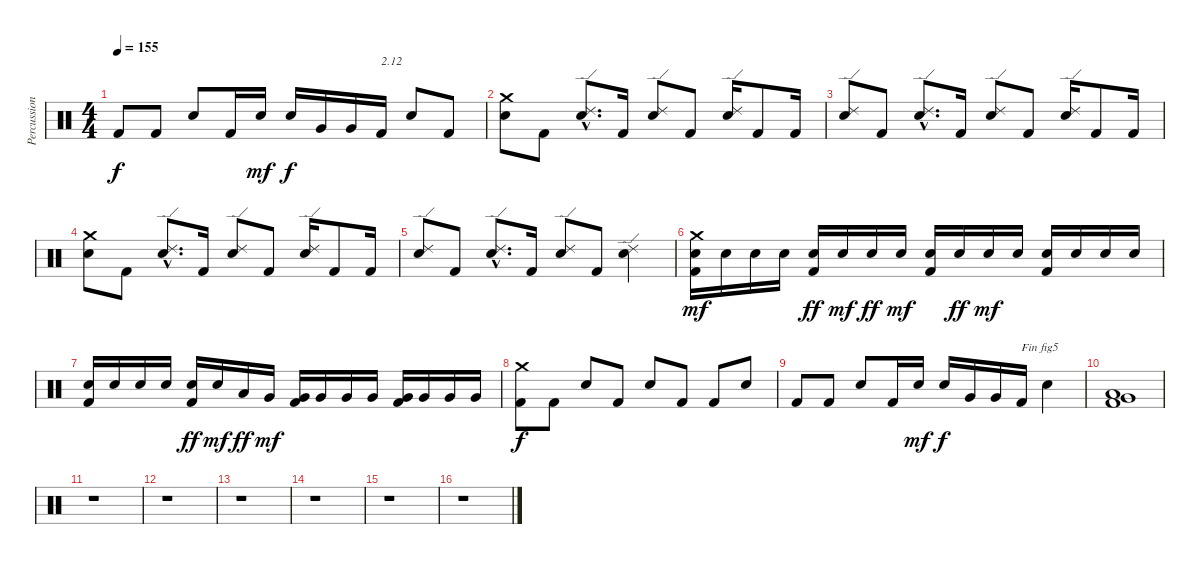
\track ("Percussions" "Percussion") {instrument percussion}
\staff {score}
\articulation defaults
\ts (4 4)
\tempo 155
\clef neutral
\ks c "Kick (hit) 2".8{dy f} "Kick (hit) 2".8 "Electric Snare (hit)".8 "Kick (hit) 2".16 "Electric Snare (hit)".16{dy mf} "Electric Snare (hit)".16{dy f} "Very Low Tom (hit)".16 "Very Low Tom (hit)".16 "Kick (hit) 2".16{txt "2.12"} "Electric Snare (hit)".8 "Kick (hit) 2".8
|
("Electric Snare (hit)" "Crash medium (hit)").8 "Kick (hit) 2".8 ("Electric Snare (hit)"{hac} "Ride (edge) 2"{hac}).8{d} "Kick (hit) 2".16 ("Electric Snare (hit)" "Ride (edge) 2").8 "Kick (hit) 2".8 ("Electric Snare (hit)" "Ride (edge) 2").16 "Kick (hit) 2".8 "Kick (hit) 2".16 |
("Electric Snare (hit)" "Ride (edge) 2").8 "Kick (hit) 2".8 ("Electric Snare (hit)"{hac} "Ride (edge) 2"{hac}).8{d} "Kick (hit) 2".16 ("Electric Snare (hit)" "Ride (edge) 2").8 "Kick (hit) 2".8 ("Electric Snare (hit)" "Ride (edge) 2").16 "Kick (hit) 2".8 "Kick (hit) 2".16 |
("Electric Snare (hit)" "Crash medium (hit)").8 "Kick (hit) 2".8 ("Electric Snare (hit)"{hac} "Ride (edge) 2"{hac}).8{d} "Kick (hit) 2".16 ("Electric Snare (hit)" "Ride (edge) 2").8 "Kick (hit) 2".8 ("Electric Snare (hit)" "Ride (edge) 2").16 "Kick (hit) 2".8 "Kick (hit) 2".16 |
("Electric Snare (hit)" "Ride (edge) 2").8 "Kick (hit) 2".8 ("Electric Snare (hit)"{hac} "Ride (edge) 2"{hac}).8{d} "Kick (hit) 2".16 ("Electric Snare (hit)" "Ride (edge) 2").8 "Kick (hit) 2".8 ("Electric Snare (hit)" "Ride (edge) 2").4 |
("Kick (hit) 2" "Electric Snare (hit)" "Crash medium (hit)").16{dy mf} "Electric Snare (hit)".16 "Electric Snare (hit)".16 "Electric Snare (hit)".16 ("Kick (hit) 2" "Electric Snare (hit)").16{dy ff} "Electric Snare (hit)".16{dy mf} "Electric Snare (hit)".16{dy ff} "Electric Snare (hit)".16{dy mf} ("Kick (hit) 2" "Electric Snare (hit)").16 "Electric Snare (hit)".16{dy ff} "Electric Snare (hit)".16{dy mf} "Electric Snare (hit)".16 ("Kick (hit) 2" "Electric Snare (hit)").16 "Electric Snare (hit)".16 "Electric Snare (hit)".16 "Electric Snare (hit)".16 |
("Kick (hit) 2" "Electric Snare (hit)").16 "Electric Snare (hit)".16 "Electric Snare (hit)".16 "Electric Snare (hit)".16 ("Kick (hit) 2" "Electric Snare (hit)").16{dy ff} "Electric Snare (hit)".16{dy mf} "Low Tom (hit)".16{dy ff} "Very Low Tom (hit)".16{dy mf} ("Kick (hit) 2" "Very Low Tom (hit)").16 "Very Low Tom (hit)".16 "Very Low Tom (hit)".16 "Very Low Tom (hit)".16 ("Kick (hit) 2" "Very Low Tom (hit)").16 "Very Low Tom (hit)".16 "Very Low Tom (hit)".16 "Very Low Tom (hit)".16 |
("Kick (hit) 2" "Crash medium (hit)").8{dy f} "Kick (hit) 2".8 "Electric Snare (hit)".8 "Kick (hit) 2".8 "Electric Snare (hit)".8 "Kick (hit) 2".8 "Kick (hit) 2".8 "Electric Snare (hit)".8 |
"Kick (hit) 2".8 "Kick (hit) 2".8 "Electric Snare (hit)".8 "Kick (hit) 2".16 "Electric Snare (hit)".16{dy mf} "Electric Snare (hit)".16{dy f} "Very Low Tom (hit)".16 "Very Low Tom (hit)".16 "Kick (hit) 2".16{txt "Fin fig5"} "Electric Snare (hit)".4 |
("Kick (hit) 2" "Very Low Tom (hit)" "Low Floor Tom (hit)").1 |
r.1 |
r.1 |
r.1 |
r.1 |
r.1 |
r.1
